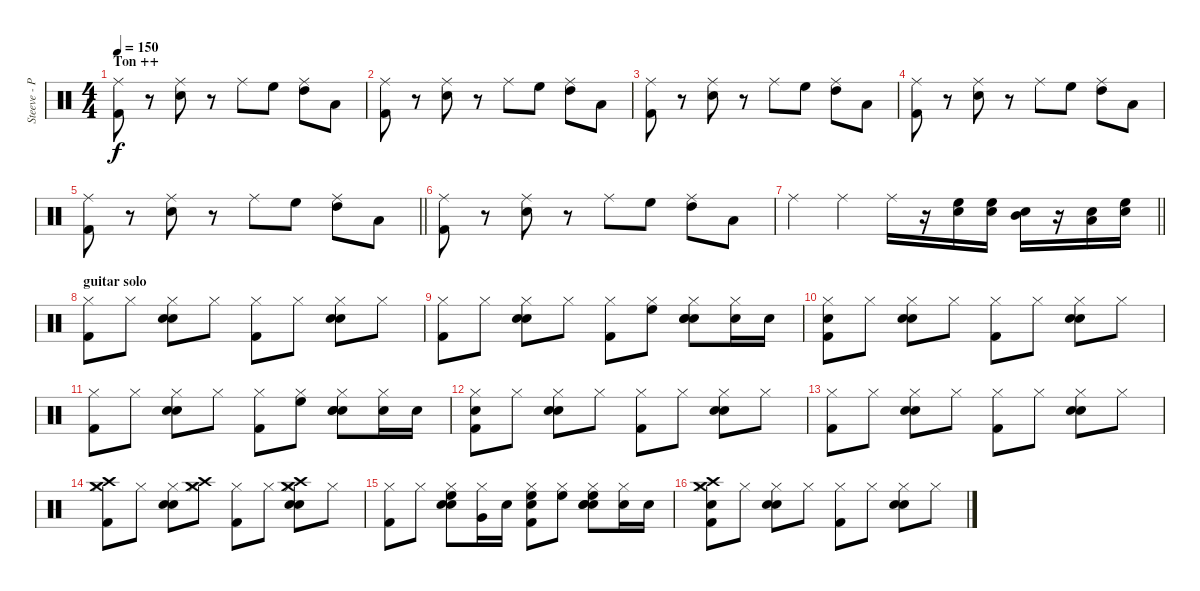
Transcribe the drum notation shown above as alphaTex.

\track ("Steeve - Percussions" "Steeve - P") {instrument percussion}
\staff {score}
\articulation defaults
\ts (4 4)
\section ("" "Ton ++")
\tempo 150
\clef neutral
\ks c
("Ride (middle)" "Kick (hit) 2").8{dy f} r.8 ("Ride (middle)" "Snare (hit) 2").8 r.8 "Ride (middle)".8 "High Floor Tom (hit)".8 ("Ride (middle)" "High Tom (hit)").8 "Low Tom (hit)".8 |
("Ride (middle)" "Kick (hit) 2").8 r.8 ("Ride (middle)" "Snare (hit) 2").8 r.8 "Ride (middle)".8 "High Floor Tom (hit)".8 ("Ride (middle)" "High Tom (hit)").8 "Low Tom (hit)".8 |
("Ride (middle)" "Kick (hit) 2").8 r.8 ("Ride (middle)" "Snare (hit) 2").8 r.8 "Ride (middle)".8 "High Floor Tom (hit)".8 ("Ride (middle)" "High Tom (hit)").8 "Low Tom (hit)".8 |
("Ride (middle)" "Kick (hit) 2").8 r.8 ("Ride (middle)" "Snare (hit) 2").8 r.8 "Ride (middle)".8 "High Floor Tom (hit)".8 ("Ride (middle)" "High Tom (hit)").8 "Low Tom (hit)".8 |
\barLineRight lightlight
("Ride (middle)" "Kick (hit) 2").8 r.8 ("Ride (middle)" "Snare (hit) 2").8 r.8 "Ride (middle)".8 "High Floor Tom (hit)".8 ("Ride (middle)" "High Tom (hit)").8 "Low Tom (hit)".8 |
("Ride (middle)" "Kick (hit) 2").8 r.8 ("Ride (middle)" "Snare (hit) 2").8 r.8 "Ride (middle)".8 "High Floor Tom (hit)".8 ("Ride (middle)" "High Tom (hit)").8 "Low Tom (hit)".8 |
\barLineRight lightlight "Ride (middle)".4 "Ride (middle)".4 "Ride (middle)".16
r.16 ("High Floor Tom (hit)" "Snare (hit) 2").16 ("High Floor Tom (hit)" "Snare (hit) 2").16 ("Mid Tom (hit)" "Snare (hit) 2").16 r.16 ("Low Tom (hit)" "Snare (hit) 2").16 ("High Floor Tom (hit)" "Snare (hit) 2").16 |
\section ("" "guitar solo")
("Hi-Hat (closed)" "Kick (hit) 2").8 "Hi-Hat (closed)".8 ("Hi-Hat (closed)" "Snare (hit) 2" "Electric Snare (hit)").8 "Hi-Hat (closed)".8 ("Hi-Hat (closed)" "Kick (hit) 2").8 "Hi-Hat (closed)".8 ("Hi-Hat (closed)" "Snare (hit) 2" "Electric Snare (hit)").8 "Hi-Hat (closed)".8 |
("Hi-Hat (closed)" "Kick (hit) 2").8 "Hi-Hat (closed)".8 ("Hi-Hat (closed)" "Snare (hit) 2" "Electric Snare (hit)").8 "Hi-Hat (closed)".8 ("Hi-Hat (closed)" "Kick (hit) 2").8 ("Hi-Hat (closed)" "High Floor Tom (hit)").8 ("Hi-Hat (closed)" "Snare (hit) 2" "Electric Snare (hit)" "Snare (hit) 2").8 ("Hi-Hat (closed)" "Snare (hit) 2").16 "Snare (hit) 2".16 |
("Hi-Hat (closed)" "Kick (hit) 2" "Snare (hit) 2").8 "Hi-Hat (closed)".8 ("Hi-Hat (closed)" "Snare (hit) 2" "Electric Snare (hit)").8 "Hi-Hat (closed)".8 ("Hi-Hat (closed)" "Kick (hit) 2").8 "Hi-Hat (closed)".8 ("Hi-Hat (closed)" "Snare (hit) 2" "Electric Snare (hit)").8 "Hi-Hat (closed)".8 |
("Hi-Hat (closed)" "Kick (hit) 2").8 "Hi-Hat (closed)".8 ("Hi-Hat (closed)" "Snare (hit) 2" "Electric Snare (hit)").8 "Hi-Hat (closed)".8 ("Hi-Hat (closed)" "Kick (hit) 2").8 ("Hi-Hat (closed)" "High Floor Tom (hit)").8 ("Hi-Hat (closed)" "Snare (hit) 2" "Electric Snare (hit)" "Snare (hit) 2").8 ("Hi-Hat (closed)" "Snare (hit) 2").16 "Snare (hit) 2".16 |
("Hi-Hat (closed)" "Kick (hit) 2" "Snare (hit) 2").8 "Hi-Hat (closed)".8 ("Hi-Hat (closed)" "Snare (hit) 2" "Electric Snare (hit)").8 "Hi-Hat (closed)".8 ("Hi-Hat (closed)" "Kick (hit) 2").8 "Hi-Hat (closed)".8 ("Hi-Hat (closed)" "Snare (hit) 2" "Electric Snare (hit)").8 "Hi-Hat (closed)".8 |
("Hi-Hat (closed)" "Kick (hit) 2").8 "Hi-Hat (closed)".8 ("Hi-Hat (closed)" "Snare (hit) 2" "Electric Snare (hit)").8 "Hi-Hat (closed)".8 ("Hi-Hat (closed)" "Kick (hit) 2").8 "Hi-Hat (closed)".8 ("Hi-Hat (closed)" "Snare (hit) 2" "Electric Snare (hit)").8 "Hi-Hat (closed)".8 |
("Hi-Hat (closed)" "Kick (hit) 2" "Crash high (hit)" "Crash medium (hit)").8 "Hi-Hat (closed)".8 ("Hi-Hat (closed)" "Snare (hit) 2" "Electric Snare (hit)").8 ("Hi-Hat (closed)" "Crash high (hit)" "Crash medium (hit)").8 ("Hi-Hat (closed)" "Kick (hit) 2").8 "Hi-Hat (closed)".8 ("Hi-Hat (closed)" "Snare (hit) 2" "Electric Snare (hit)" "Crash high (hit)" "Crash medium (hit)").8 "Hi-Hat (closed)".8 |
("Hi-Hat (closed)" "Kick (hit) 2").8 "Hi-Hat (closed)".8 ("Hi-Hat (closed)" "Snare (hit) 2" "Electric Snare (hit)" "High Floor Tom (hit)").8 ("Hi-Hat (closed)" "Very Low Tom (hit)").16 "Snare (hit) 2".16 ("Hi-Hat (closed)" "Kick (hit) 2" "Snare (hit) 2" "High Floor Tom (hit)").8 ("Hi-Hat (closed)" "High Floor Tom (hit)").8 ("Hi-Hat (closed)" "Snare (hit) 2" "Electric Snare (hit)" "Snare (hit) 2" "High Floor Tom (hit)").8 ("Hi-Hat (closed)" "Snare (hit) 2").16 "Snare (hit) 2".16 |
("Hi-Hat (closed)" "Kick (hit) 2" "Crash high (hit)" "Snare (hit) 2" "Crash medium (hit)").8 "Hi-Hat (closed)".8 ("Hi-Hat (closed)" "Snare (hit) 2" "Electric Snare (hit)").8 "Hi-Hat (closed)".8 ("Hi-Hat (closed)" "Kick (hit) 2").8 "Hi-Hat (closed)".8 ("Hi-Hat (closed)" "Snare (hit) 2" "Electric Snare (hit)").8 "Hi-Hat (closed)".8
